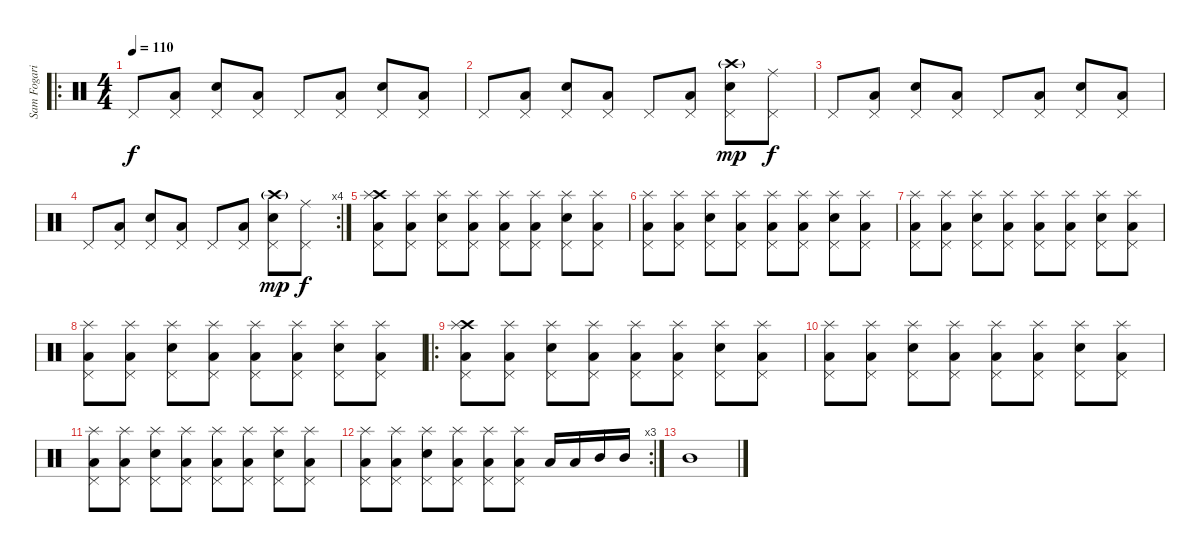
\track ("Sam Fogarino (Drums)" "Sam Fogari") {instrument percussion}
\staff {score}
\articulation defaults
\ro
\ts (4 4)
\tempo 110
\clef neutral
\ks c "Pedal Hi-Hat (hit)".8{dy f}
("Low Tom (hit)" "Pedal Hi-Hat (hit)").8 ("Snare (hit) 2" "Pedal Hi-Hat (hit)").8 ("Low Tom (hit)" "Pedal Hi-Hat (hit)").8 "Pedal Hi-Hat (hit)".8 ("Low Tom (hit)" "Pedal Hi-Hat (hit)").8 ("Snare (hit) 2" "Pedal Hi-Hat (hit)").8 ("Low Tom (hit)" "Pedal Hi-Hat (hit)").8 |
"Pedal Hi-Hat (hit)".8 ("Low Tom (hit)" "Pedal Hi-Hat (hit)").8 ("Snare (hit) 2" "Pedal Hi-Hat (hit)").8 ("Low Tom (hit)" "Pedal Hi-Hat (hit)").8 "Pedal Hi-Hat (hit)".8 ("Low Tom (hit)" "Pedal Hi-Hat (hit)").8 ("Crash high (hit)"{g} "Snare (hit) 2" "Pedal Hi-Hat (hit)").8{dy mp} ("Ride (middle)" "Pedal Hi-Hat (hit)").8{dy f} |
"Pedal Hi-Hat (hit)".8 ("Low Tom (hit)" "Pedal Hi-Hat (hit)").8 ("Snare (hit) 2" "Pedal Hi-Hat (hit)").8 ("Low Tom (hit)" "Pedal Hi-Hat (hit)").8 "Pedal Hi-Hat (hit)".8 ("Low Tom (hit)" "Pedal Hi-Hat (hit)").8 ("Snare (hit) 2" "Pedal Hi-Hat (hit)").8 ("Low Tom (hit)" "Pedal Hi-Hat (hit)").8 |
\rc 4 "Pedal Hi-Hat (hit)".8
("Low Tom (hit)" "Pedal Hi-Hat (hit)").8 ("Snare (hit) 2" "Pedal Hi-Hat (hit)").8 ("Low Tom (hit)" "Pedal Hi-Hat (hit)").8 "Pedal Hi-Hat (hit)".8 ("Low Tom (hit)" "Pedal Hi-Hat (hit)").8 ("Crash high (hit)"{g} "Snare (hit) 2" "Pedal Hi-Hat (hit)").8{dy mp} ("Ride (middle)" "Pedal Hi-Hat (hit)").8{dy f} |
("Crash high (hit)" "Splash (hit)" "Low Tom (hit)" "Pedal Hi-Hat (hit)").8 ("Splash (hit)" "Low Tom (hit)" "Pedal Hi-Hat (hit)").8 ("Splash (hit)" "Snare (hit) 2" "Pedal Hi-Hat (hit)").8 ("Splash (hit)" "Low Tom (hit)" "Pedal Hi-Hat (hit)").8 ("Splash (hit)" "Low Tom (hit)" "Pedal Hi-Hat (hit)").8 ("Splash (hit)" "Low Tom (hit)" "Pedal Hi-Hat (hit)").8 ("Splash (hit)" "Snare (hit) 2" "Pedal Hi-Hat (hit)").8 ("Splash (hit)" "Low Tom (hit)" "Pedal Hi-Hat (hit)").8 |
("Splash (hit)" "Low Tom (hit)" "Pedal Hi-Hat (hit)").8 ("Splash (hit)" "Low Tom (hit)" "Pedal Hi-Hat (hit)").8 ("Splash (hit)" "Snare (hit) 2" "Pedal Hi-Hat (hit)").8 ("Splash (hit)" "Low Tom (hit)" "Pedal Hi-Hat (hit)").8 ("Splash (hit)" "Low Tom (hit)" "Pedal Hi-Hat (hit)").8 ("Splash (hit)" "Low Tom (hit)" "Pedal Hi-Hat (hit)").8 ("Splash (hit)" "Snare (hit) 2" "Pedal Hi-Hat (hit)").8 ("Splash (hit)" "Low Tom (hit)" "Pedal Hi-Hat (hit)").8 |
("Splash (hit)" "Low Tom (hit)" "Pedal Hi-Hat (hit)").8 ("Splash (hit)" "Low Tom (hit)" "Pedal Hi-Hat (hit)").8 ("Splash (hit)" "Snare (hit) 2" "Pedal Hi-Hat (hit)").8 ("Splash (hit)" "Low Tom (hit)" "Pedal Hi-Hat (hit)").8 ("Splash (hit)" "Low Tom (hit)" "Pedal Hi-Hat (hit)").8 ("Splash (hit)" "Low Tom (hit)" "Pedal Hi-Hat (hit)").8 ("Splash (hit)" "Snare (hit) 2" "Pedal Hi-Hat (hit)").8 ("Splash (hit)" "Low Tom (hit)" "Pedal Hi-Hat (hit)").8 |
("Splash (hit)" "Low Tom (hit)" "Pedal Hi-Hat (hit)").8 ("Splash (hit)" "Low Tom (hit)" "Pedal Hi-Hat (hit)").8 ("Splash (hit)" "Snare (hit) 2" "Pedal Hi-Hat (hit)").8 ("Splash (hit)" "Low Tom (hit)" "Pedal Hi-Hat (hit)").8 ("Splash (hit)" "Low Tom (hit)" "Pedal Hi-Hat (hit)").8 ("Splash (hit)" "Low Tom (hit)" "Pedal Hi-Hat (hit)").8 ("Splash (hit)" "Snare (hit) 2" "Pedal Hi-Hat (hit)").8 ("Splash (hit)" "Low Tom (hit)" "Pedal Hi-Hat (hit)").8 |
\ro
("Crash high (hit)" "Splash (hit)" "Low Tom (hit)" "Pedal Hi-Hat (hit)").8 ("Splash (hit)" "Low Tom (hit)" "Pedal Hi-Hat (hit)").8 ("Splash (hit)" "Snare (hit) 2" "Pedal Hi-Hat (hit)").8 ("Splash (hit)" "Low Tom (hit)" "Pedal Hi-Hat (hit)").8 ("Splash (hit)" "Low Tom (hit)" "Pedal Hi-Hat (hit)").8 ("Splash (hit)" "Low Tom (hit)" "Pedal Hi-Hat (hit)").8 ("Splash (hit)" "Snare (hit) 2" "Pedal Hi-Hat (hit)").8 ("Splash (hit)" "Low Tom (hit)" "Pedal Hi-Hat (hit)").8 |
("Splash (hit)" "Low Tom (hit)" "Pedal Hi-Hat (hit)").8 ("Splash (hit)" "Low Tom (hit)" "Pedal Hi-Hat (hit)").8 ("Splash (hit)" "Snare (hit) 2" "Pedal Hi-Hat (hit)").8 ("Splash (hit)" "Low Tom (hit)" "Pedal Hi-Hat (hit)").8 ("Splash (hit)" "Low Tom (hit)" "Pedal Hi-Hat (hit)").8 ("Splash (hit)" "Low Tom (hit)" "Pedal Hi-Hat (hit)").8 ("Splash (hit)" "Snare (hit) 2" "Pedal Hi-Hat (hit)").8 ("Splash (hit)" "Low Tom (hit)" "Pedal Hi-Hat (hit)").8 |
("Splash (hit)" "Low Tom (hit)" "Pedal Hi-Hat (hit)").8 ("Splash (hit)" "Low Tom (hit)" "Pedal Hi-Hat (hit)").8 ("Splash (hit)" "Snare (hit) 2" "Pedal Hi-Hat (hit)").8 ("Splash (hit)" "Low Tom (hit)" "Pedal Hi-Hat (hit)").8 ("Splash (hit)" "Low Tom (hit)" "Pedal Hi-Hat (hit)").8 ("Splash (hit)" "Low Tom (hit)" "Pedal Hi-Hat (hit)").8 ("Splash (hit)" "Snare (hit) 2" "Pedal Hi-Hat (hit)").8 ("Splash (hit)" "Low Tom (hit)" "Pedal Hi-Hat (hit)").8 |
\rc 3
("Splash (hit)" "Low Tom (hit)" "Pedal Hi-Hat (hit)").8 ("Splash (hit)" "Low Tom (hit)" "Pedal Hi-Hat (hit)").8 ("Splash (hit)" "Snare (hit) 2" "Pedal Hi-Hat (hit)").8 ("Splash (hit)" "Low Tom (hit)" "Pedal Hi-Hat (hit)").8 ("Splash (hit)" "Low Tom (hit)" "Pedal Hi-Hat (hit)").8 ("Splash (hit)" "Low Tom (hit)" "Pedal Hi-Hat (hit)").8 "Low Tom (hit)".16 "Low Tom (hit)".16 "Mid Tom (hit)".16 "Mid Tom (hit)".16 |
"Mid Tom (hit)".1
